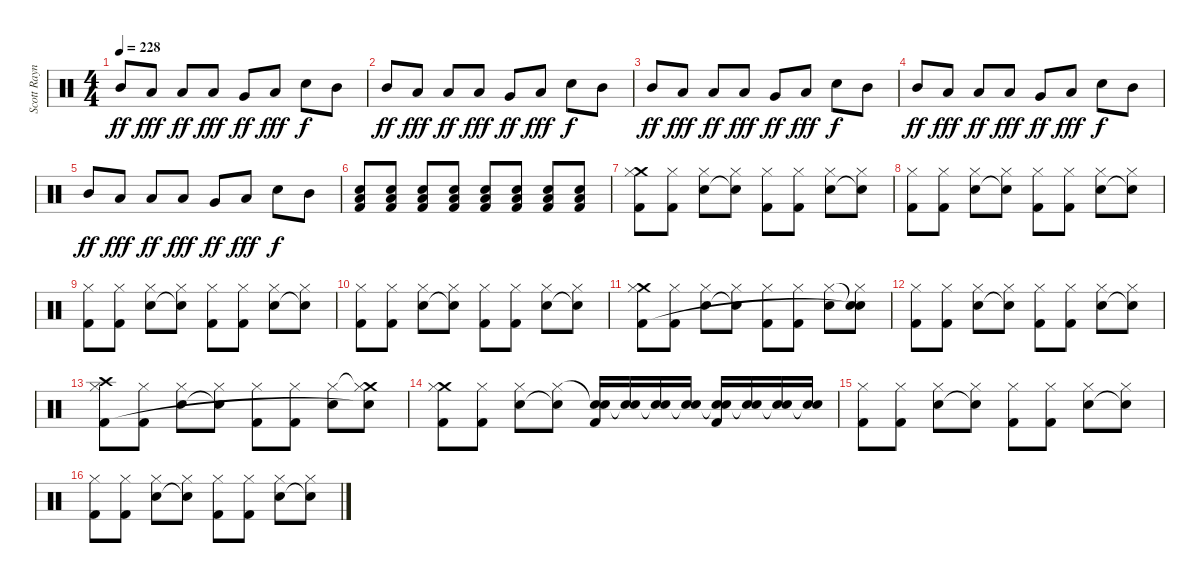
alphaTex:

\track ("Scott Raynor Drums" "Scott Rayn") {instrument percussion}
\staff {score}
\articulation defaults
\ts (4 4)
\tempo 228
\clef neutral
\ks c "Mid Tom (hit)".8{dy ff} "Low Floor Tom (hit)".8{dy fff} "Low Tom (hit)".8{dy ff} "Low Floor Tom (hit)".8{dy fff} "Very Low Tom (hit)".8{dy ff} "Low Floor Tom (hit)".8{dy fff} "Snare (hit) 2".8{dy f} "Mid Tom (hit)".8
|
"Mid Tom (hit)".8{dy ff} "Low Floor Tom (hit)".8{dy fff} "Low Tom (hit)".8{dy ff} "Low Floor Tom (hit)".8{dy fff} "Very Low Tom (hit)".8{dy ff} "Low Floor Tom (hit)".8{dy fff} "Snare (hit) 2".8{dy f} "Mid Tom (hit)".8 |
"Mid Tom (hit)".8{dy ff} "Low Floor Tom (hit)".8{dy fff} "Low Tom (hit)".8{dy ff} "Low Floor Tom (hit)".8{dy fff} "Very Low Tom (hit)".8{dy ff} "Low Floor Tom (hit)".8{dy fff} "Snare (hit) 2".8{dy f} "Mid Tom (hit)".8 |
"Mid Tom (hit)".8{dy ff} "Low Floor Tom (hit)".8{dy fff} "Low Tom (hit)".8{dy ff} "Low Floor Tom (hit)".8{dy fff} "Very Low Tom (hit)".8{dy ff} "Low Floor Tom (hit)".8{dy fff} "Snare (hit) 2".8{dy f} "Mid Tom (hit)".8 |
"Mid Tom (hit)".8{dy ff} "Low Floor Tom (hit)".8{dy fff} "Low Tom (hit)".8{dy ff} "Low Floor Tom (hit)".8{dy fff} "Very Low Tom (hit)".8{dy ff} "Low Floor Tom (hit)".8{dy fff} "Snare (hit) 2".8{dy f} "Mid Tom (hit)".8 |
("Low Floor Tom (hit)" "Electric Snare (hit)" "Kick (hit) 2").8 ("Low Floor Tom (hit)" "Electric Snare (hit)" "Kick (hit) 2").8 ("Low Floor Tom (hit)" "Electric Snare (hit)" "Kick (hit) 2").8 ("Low Floor Tom (hit)" "Electric Snare (hit)" "Kick (hit) 2").8 ("Low Floor Tom (hit)" "Electric Snare (hit)" "Kick (hit) 2").8 ("Low Floor Tom (hit)" "Electric Snare (hit)" "Kick (hit) 2").8 ("Low Floor Tom (hit)" "Electric Snare (hit)" "Kick (hit) 2").8 ("Low Floor Tom (hit)" "Electric Snare (hit)" "Kick (hit) 2").8 |
("Crash medium (hit)" "Hi-Hat (closed)" "Kick (hit) 2").8 ("Hi-Hat (closed)" "Kick (hit) 2").8 ("Hi-Hat (closed)" "Electric Snare (hit)").8 ("Hi-Hat (closed)" "Snare (hit)"{t}).8 ("Hi-Hat (closed)" "Kick (hit) 2").8 ("Hi-Hat (closed)" "Kick (hit) 2").8 ("Hi-Hat (closed)" "Electric Snare (hit)").8 ("Hi-Hat (closed)" "Snare (hit)"{t}).8 |
("Hi-Hat (closed)" "Kick (hit) 2").8 ("Hi-Hat (closed)" "Kick (hit) 2").8 ("Hi-Hat (closed)" "Electric Snare (hit)").8 ("Hi-Hat (closed)" "Snare (hit)"{t}).8 ("Hi-Hat (closed)" "Kick (hit) 2").8 ("Hi-Hat (closed)" "Kick (hit) 2").8 ("Hi-Hat (closed)" "Electric Snare (hit)").8 ("Hi-Hat (closed)" "Snare (hit)"{t}).8 |
("Hi-Hat (closed)" "Kick (hit) 2").8 ("Hi-Hat (closed)" "Kick (hit) 2").8 ("Hi-Hat (closed)" "Electric Snare (hit)").8 ("Hi-Hat (closed)" "Snare (hit)"{t}).8 ("Hi-Hat (closed)" "Kick (hit) 2").8 ("Hi-Hat (closed)" "Kick (hit) 2").8 ("Hi-Hat (closed)" "Electric Snare (hit)").8 ("Hi-Hat (closed)" "Snare (hit)"{t}).8 |
("Hi-Hat (closed)" "Kick (hit) 2").8 ("Hi-Hat (closed)" "Kick (hit) 2").8 ("Hi-Hat (closed)" "Electric Snare (hit)").8 ("Hi-Hat (closed)" "Snare (hit)"{t}).8 ("Hi-Hat (closed)" "Kick (hit) 2").8 ("Hi-Hat (closed)" "Kick (hit) 2").8 ("Hi-Hat (closed)" "Electric Snare (hit)").8 ("Hi-Hat (closed)" "Snare (hit)"{t}).8 |
("Crash medium (hit)" "Hi-Hat (closed)" "Kick (hit) 2").8 ("Hi-Hat (closed)" "Kick (hit) 2").8 ("Hi-Hat (closed)" "Electric Snare (hit)").8 ("Hi-Hat (closed)" "Snare (hit)"{t}).8 ("Hi-Hat (closed)" "Kick (hit) 2").8 ("Hi-Hat (closed)" "Kick (hit) 2").8 ("Hi-Hat (closed)" "Electric Snare (hit)").8 ("Snare (hit)"{t} "Hi-Hat (closed)" "Snare (hit)"{t}).8 |
("Hi-Hat (closed)" "Kick (hit) 2").8 ("Hi-Hat (closed)" "Kick (hit) 2").8 ("Hi-Hat (closed)" "Electric Snare (hit)").8 ("Hi-Hat (closed)" "Snare (hit)"{t}).8 ("Hi-Hat (closed)" "Kick (hit) 2").8 ("Hi-Hat (closed)" "Kick (hit) 2").8 ("Hi-Hat (closed)" "Electric Snare (hit)").8 ("Hi-Hat (closed)" "Snare (hit)"{t}).8 |
("Crash high (hit)" "Hi-Hat (closed)" "Kick (hit) 2").8 ("Hi-Hat (closed)" "Kick (hit) 2").8 ("Hi-Hat (closed)" "Electric Snare (hit)").8 ("Hi-Hat (closed)" "Snare (hit)"{t}).8 ("Hi-Hat (closed)" "Kick (hit) 2").8 ("Hi-Hat (closed)" "Kick (hit) 2").8 ("Hi-Hat (closed)" "Electric Snare (hit)").8 ("Crash medium (hit)"{t} "Hi-Hat (closed)" "Snare (hit)"{t}).8 |
("Crash medium (hit)" "Hi-Hat (closed)" "Kick (hit) 2").8 ("Hi-Hat (closed)" "Kick (hit) 2").8 ("Hi-Hat (closed)" "Electric Snare (hit)").8 ("Hi-Hat (closed)" "Snare (hit)"{t}).8 ("Snare (hit)"{t} "Electric Snare (hit)" "Kick (hit) 2").16 ("Snare (hit)"{t} "Electric Snare (hit)").16 ("Snare (hit)"{t} "Electric Snare (hit)").16 ("Snare (hit)"{t} "Electric Snare (hit)").16 ("Snare (hit)"{t} "Electric Snare (hit)" "Kick (hit) 2").16 ("Snare (hit)"{t} "Electric Snare (hit)").16 ("Snare (hit)"{t} "Electric Snare (hit)").16 ("Snare (hit)"{t} "Electric Snare (hit)").16 |
("Hi-Hat (closed)" "Kick (hit) 2").8 ("Hi-Hat (closed)" "Kick (hit) 2").8 ("Hi-Hat (closed)" "Electric Snare (hit)").8 ("Hi-Hat (closed)" "Snare (hit)"{t}).8 ("Hi-Hat (closed)" "Kick (hit) 2").8 ("Hi-Hat (closed)" "Kick (hit) 2").8 ("Hi-Hat (closed)" "Electric Snare (hit)").8 ("Hi-Hat (closed)" "Snare (hit)"{t}).8 |
("Hi-Hat (closed)" "Kick (hit) 2").8 ("Hi-Hat (closed)" "Kick (hit) 2").8 ("Hi-Hat (closed)" "Electric Snare (hit)").8 ("Hi-Hat (closed)" "Snare (hit)"{t}).8 ("Hi-Hat (closed)" "Kick (hit) 2").8 ("Hi-Hat (closed)" "Kick (hit) 2").8 ("Hi-Hat (closed)" "Electric Snare (hit)").8 ("Hi-Hat (closed)" "Snare (hit)"{t}).8
